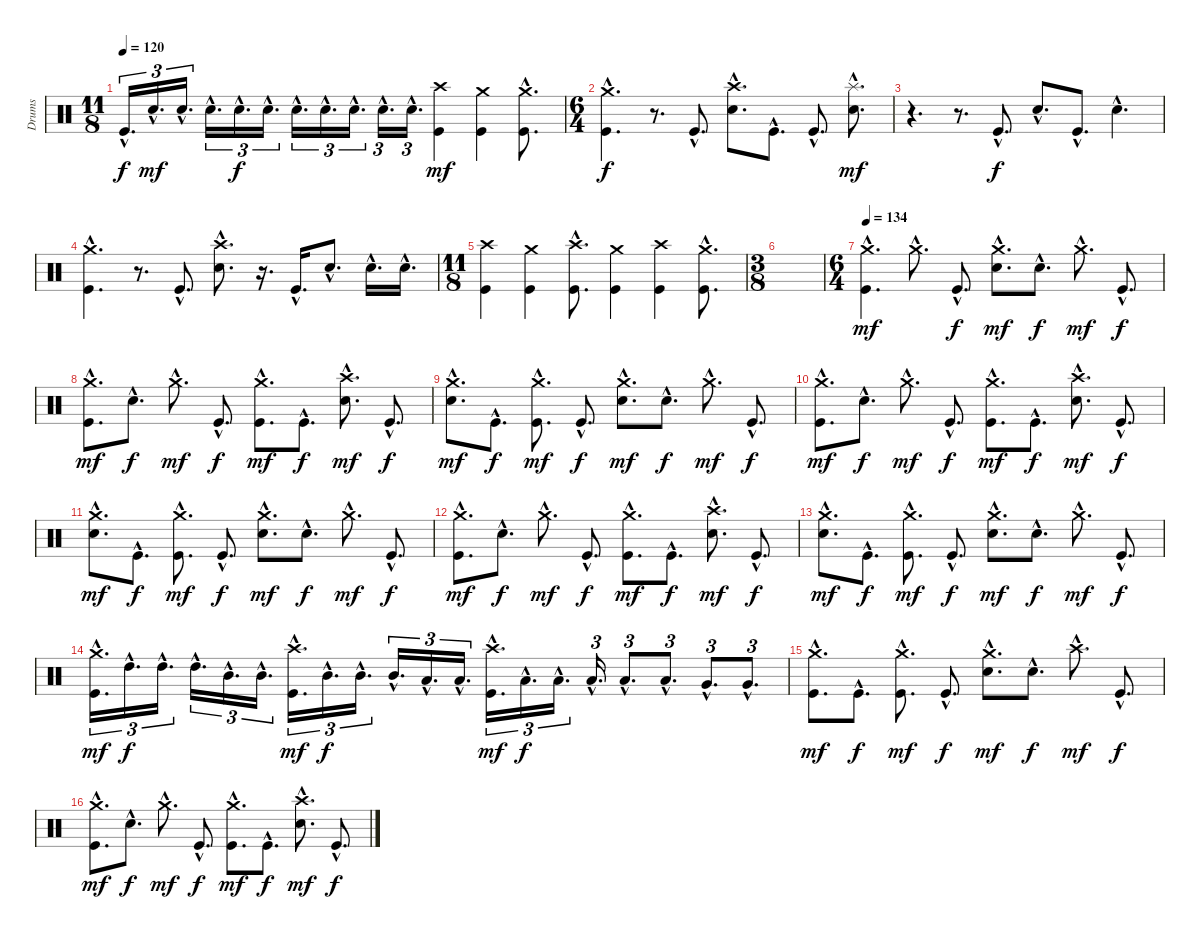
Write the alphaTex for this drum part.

\track ("Drums" "Drums") {instrument percussion}
\staff {score}
\articulation defaults
\ts (11 8)
\tempo 120
\clef neutral
\ks c "Kick (hit)"{hac}.16{d tu (3 2) dy f} "Electric Snare (hit)"{hac}.16{d tu (3 2) dy mf} "Electric Snare (hit)"{hac}.16{d tu (3 2)} "Electric Snare (hit)"{hac}.16{d tu (3 2)} "Electric Snare (hit)"{hac}.16{d tu (3 2) dy f} "Electric Snare (hit)"{hac}.16{d tu (3 2)} "Electric Snare (hit)"{hac}.16{d tu (3 2)} "Electric Snare (hit)"{hac}.16{d tu (3 2)} "Electric Snare (hit)"{hac}.16{d tu (3 2)} "Electric Snare (hit)"{hac}.16{d tu (3 2)} "Electric Snare (hit)"{hac}.16{d tu (3 2)}
("Crash high (hit)" "Kick (hit)").4{dy mf} ("Crash medium (hit)" "Kick (hit)").4 ("Crash medium (hit)"{hac} "Kick (hit)"{hac}).8{d} |
\ts (6 4)
("Crash medium (hit)"{hac} "Kick (hit)"{hac}).4{d dy f} r.8{d} "Kick (hit)"{hac}.8{d} ("Crash high (hit)"{hac} "Electric Snare (hit)"{hac}).8{d} "Kick (hit)"{hac}.8{d} "Kick (hit)"{hac}.8{d} ("Splash (hit)"{hac} "Electric Snare (hit)"{hac}).8{d dy mf} |
r.4{d} r.8{d} "Kick (hit)"{hac}.8{d dy f} "Electric Snare (hit)"{hac}.8{d} "Kick (hit)"{hac}.8{d} "Electric Snare (hit)"{hac}.4{d} |
("Crash medium (hit)"{hac} "Kick (hit)"{hac}).4{d} r.8{d} "Kick (hit)"{hac}.8{d} ("Crash high (hit)"{hac} "Electric Snare (hit)"{hac}).8{d} r.16{d} "Kick (hit)"{hac}.16{d} "Electric Snare (hit)"{hac}.8{d} "Electric Snare (hit)"{hac}.16{d} "Electric Snare (hit)"{hac}.16{d} |
\ts (11 8)
("Crash high (hit)" "Kick (hit)").4 ("Crash medium (hit)" "Kick (hit)").4 ("Crash high (hit)"{hac} "Kick (hit)"{hac}).8{d} ("Crash medium (hit)" "Kick (hit)").4 ("Crash high (hit)" "Kick (hit)").4 ("Crash medium (hit)"{hac} "Kick (hit)"{hac}).8{d} |
\ts (3 8)
|
\ts (6 4)
\section ("" "")
\tempo 134
("Crash medium (hit)"{hac} "Kick (hit)"{hac}).4{d dy mf} "Crash medium (hit)"{hac}.8{d} "Kick (hit)"{hac}.8{d dy f} ("Crash medium (hit)"{hac} "Electric Snare (hit)"{hac}).8{d dy mf} "Electric Snare (hit)"{hac}.8{d dy f} "Crash medium (hit)"{hac}.8{d dy mf} "Kick (hit)"{hac}.8{d dy f} |
("Crash medium (hit)"{hac} "Kick (hit)"{hac}).8{d dy mf} "Electric Snare (hit)"{hac}.8{d dy f} "Crash medium (hit)"{hac}.8{d dy mf} "Kick (hit)"{hac}.8{d dy f} ("Crash medium (hit)"{hac} "Kick (hit)"{hac}).8{d dy mf} "Kick (hit)"{hac}.8{d dy f} ("Crash high (hit)"{hac} "Electric Snare (hit)"{hac}).8{d dy mf} "Kick (hit)"{hac}.8{d dy f} |
("Crash medium (hit)"{hac} "Electric Snare (hit)"{hac}).8{d dy mf} "Kick (hit)"{hac}.8{d dy f} ("Crash medium (hit)"{hac} "Kick (hit)"{hac}).8{d dy mf} "Kick (hit)"{hac}.8{d dy f} ("Crash medium (hit)"{hac} "Electric Snare (hit)"{hac}).8{d dy mf} "Electric Snare (hit)"{hac}.8{d dy f} "Crash medium (hit)"{hac}.8{d dy mf} "Kick (hit)"{hac}.8{d dy f} |
("Crash medium (hit)"{hac} "Kick (hit)"{hac}).8{d dy mf} "Electric Snare (hit)"{hac}.8{d dy f} "Crash medium (hit)"{hac}.8{d dy mf} "Kick (hit)"{hac}.8{d dy f} ("Crash medium (hit)"{hac} "Kick (hit)"{hac}).8{d dy mf} "Kick (hit)"{hac}.8{d dy f} ("Crash high (hit)"{hac} "Electric Snare (hit)"{hac}).8{d dy mf} "Kick (hit)"{hac}.8{d dy f} |
("Crash medium (hit)"{hac} "Electric Snare (hit)"{hac}).8{d dy mf} "Kick (hit)"{hac}.8{d dy f} ("Crash medium (hit)"{hac} "Kick (hit)"{hac}).8{d dy mf} "Kick (hit)"{hac}.8{d dy f} ("Crash medium (hit)"{hac} "Electric Snare (hit)"{hac}).8{d dy mf} "Electric Snare (hit)"{hac}.8{d dy f} "Crash medium (hit)"{hac}.8{d dy mf} "Kick (hit)"{hac}.8{d dy f} |
("Crash medium (hit)"{hac} "Kick (hit)"{hac}).8{d dy mf} "Electric Snare (hit)"{hac}.8{d dy f} "Crash medium (hit)"{hac}.8{d dy mf} "Kick (hit)"{hac}.8{d dy f} ("Crash medium (hit)"{hac} "Kick (hit)"{hac}).8{d dy mf} "Kick (hit)"{hac}.8{d dy f} ("Crash high (hit)"{hac} "Electric Snare (hit)"{hac}).8{d dy mf} "Kick (hit)"{hac}.8{d dy f} |
("Crash medium (hit)"{hac} "Electric Snare (hit)"{hac}).8{d dy mf} "Kick (hit)"{hac}.8{d dy f} ("Crash medium (hit)"{hac} "Kick (hit)"{hac}).8{d dy mf} "Kick (hit)"{hac}.8{d dy f} ("Crash medium (hit)"{hac} "Electric Snare (hit)"{hac}).8{d dy mf} "Electric Snare (hit)"{hac}.8{d dy f} "Crash medium (hit)"{hac}.8{d dy mf} "Kick (hit)"{hac}.8{d dy f} |
("Crash medium (hit)"{hac} "Kick (hit)"{hac}).16{d tu (3 2) dy mf} "High Tom (hit)"{hac}.16{d tu (3 2) dy f} "High Tom (hit)"{hac}.16{d tu (3 2)} "High Tom (hit)"{hac}.16{d tu (3 2)} "Mid Tom (hit)"{hac}.16{d tu (3 2)} "Mid Tom (hit)"{hac}.16{d tu (3 2)} ("Crash high (hit)"{hac} "Kick (hit)"{hac}).16{d tu (3 2) dy mf} "Mid Tom (hit)"{hac}.16{d tu (3 2) dy f} "Mid Tom (hit)"{hac}.16{d tu (3 2)} "Mid Tom (hit)"{hac}.16{d tu (3 2)} "Low Tom (hit)"{hac}.16{d tu (3 2)} "Low Tom (hit)"{hac}.16{d tu (3 2)} ("Crash high (hit)"{hac} "Kick (hit)"{hac}).16{d tu (3 2) dy mf} "Low Tom (hit)"{hac}.16{d tu (3 2) dy f} "Low Tom (hit)"{hac}.16{d tu (3 2)} "Low Tom (hit)"{hac}.16{d tu (3 2)} "Low Tom (hit)"{hac}.8{d tu (3 2)} "Low Tom (hit)"{hac}.8{d tu (3 2)} "Very Low Tom (hit)"{hac}.8{d tu (3 2)} "Very Low Tom (hit)"{hac}.8{d tu (3 2)} |
("Crash medium (hit)"{hac} "Kick (hit)"{hac}).8{d dy mf} "Kick (hit)"{hac}.8{d dy f} ("Crash medium (hit)"{hac} "Kick (hit)"{hac}).8{d dy mf} "Kick (hit)"{hac}.8{d dy f} ("Crash medium (hit)"{hac} "Electric Snare (hit)"{hac}).8{d dy mf} "Electric Snare (hit)"{hac}.8{d dy f} "Crash high (hit)"{hac}.8{d dy mf} "Kick (hit)"{hac}.8{d dy f} |
("Crash medium (hit)"{hac} "Kick (hit)"{hac}).8{d dy mf} "Electric Snare (hit)"{hac}.8{d dy f} "Crash medium (hit)"{hac}.8{d dy mf} "Kick (hit)"{hac}.8{d dy f} ("Crash medium (hit)"{hac} "Kick (hit)"{hac}).8{d dy mf} "Kick (hit)"{hac}.8{d dy f} ("Crash high (hit)"{hac} "Electric Snare (hit)"{hac}).8{d dy mf} "Kick (hit)"{hac}.8{d dy f}
